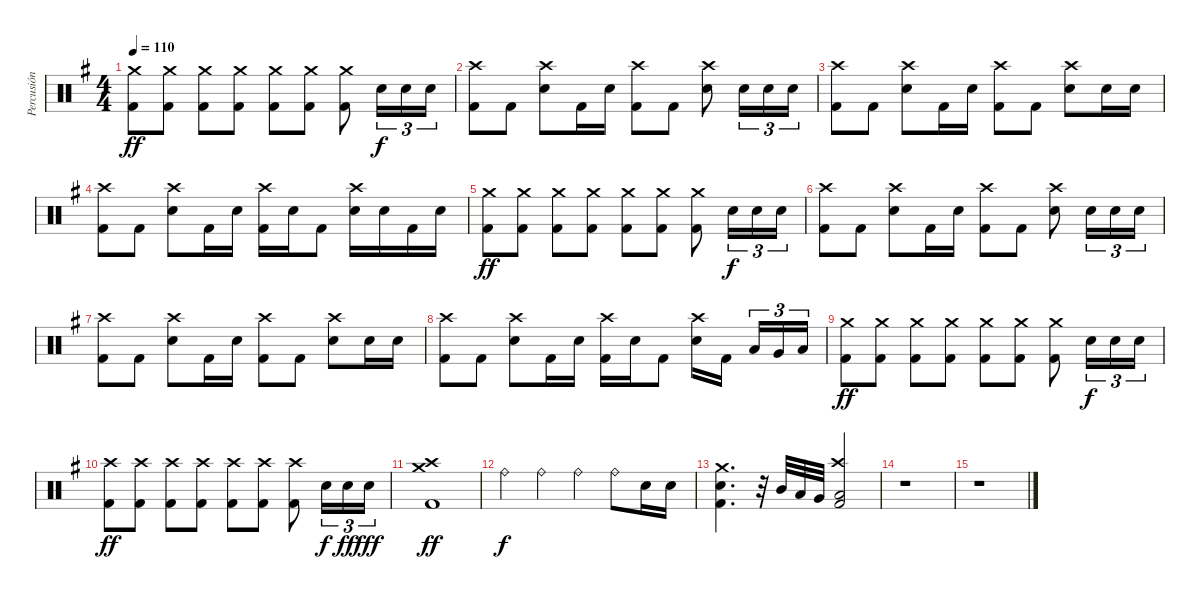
\track ("Percusión" "Percusión") {instrument percussion}
\staff {score}
\articulation defaults
\ts (4 4)
\tempo 110
\clef neutral
\ks g
("Crash medium (hit)" "Kick (hit) 2").8{dy ff} ("Crash medium (hit)" "Kick (hit) 2").8 ("Crash medium (hit)" "Kick (hit) 2").8 ("Crash medium (hit)" "Kick (hit) 2").8 ("Crash medium (hit)" "Kick (hit) 2").8 ("Crash medium (hit)" "Kick (hit) 2").8 ("Crash medium (hit)" "Kick (hit) 2").8 "Snare (hit) 2".16{tu (3 2) dy f} "Snare (hit) 2".16{tu (3 2)} "Snare (hit) 2".16{tu (3 2)} |
("Crash high (hit)" "Kick (hit) 2").8 "Kick (hit) 2".8 ("Crash high (hit)" "Snare (hit) 2").8 "Kick (hit) 2".16 "Snare (hit) 2".16 ("Crash high (hit)" "Kick (hit) 2").8 "Kick (hit) 2".8 ("Crash high (hit)" "Snare (hit) 2").8 "Snare (hit) 2".16{tu (3 2)} "Snare (hit) 2".16{tu (3 2)} "Snare (hit) 2".16{tu (3 2)} |
("Crash high (hit)" "Kick (hit) 2").8 "Kick (hit) 2".8 ("Crash high (hit)" "Snare (hit) 2").8 "Kick (hit) 2".16 "Snare (hit) 2".16 ("Crash high (hit)" "Kick (hit) 2").8 "Kick (hit) 2".8 ("Crash high (hit)" "Snare (hit) 2").8 "Snare (hit) 2".16 "Snare (hit) 2".16 |
("Crash high (hit)" "Kick (hit) 2").8 "Kick (hit) 2".8 ("Crash high (hit)" "Snare (hit) 2").8 "Kick (hit) 2".16 "Snare (hit) 2".16 ("Crash high (hit)" "Kick (hit) 2").16 "Snare (hit) 2".16 "Kick (hit) 2".8 ("Crash high (hit)" "Snare (hit) 2").16 "Snare (hit) 2".16 "Kick (hit) 2".16 "Snare (hit) 2".16 |
("Crash medium (hit)" "Kick (hit) 2").8{dy ff} ("Crash medium (hit)" "Kick (hit) 2").8 ("Crash medium (hit)" "Kick (hit) 2").8 ("Crash medium (hit)" "Kick (hit) 2").8 ("Crash medium (hit)" "Kick (hit) 2").8 ("Crash medium (hit)" "Kick (hit) 2").8 ("Crash medium (hit)" "Kick (hit) 2").8 "Snare (hit) 2".16{tu (3 2) dy f} "Snare (hit) 2".16{tu (3 2)} "Snare (hit) 2".16{tu (3 2)} |
("Crash high (hit)" "Kick (hit) 2").8 "Kick (hit) 2".8 ("Crash high (hit)" "Snare (hit) 2").8 "Kick (hit) 2".16 "Snare (hit) 2".16 ("Crash high (hit)" "Kick (hit) 2").8 "Kick (hit) 2".8 ("Crash high (hit)" "Snare (hit) 2").8 "Snare (hit) 2".16{tu (3 2)} "Snare (hit) 2".16{tu (3 2)} "Snare (hit) 2".16{tu (3 2)} |
("Crash high (hit)" "Kick (hit) 2").8 "Kick (hit) 2".8 ("Crash high (hit)" "Snare (hit) 2").8 "Kick (hit) 2".16 "Snare (hit) 2".16 ("Crash high (hit)" "Kick (hit) 2").8 "Kick (hit) 2".8 ("Crash high (hit)" "Snare (hit) 2").8 "Snare (hit) 2".16 "Snare (hit) 2".16 |
("Crash high (hit)" "Kick (hit) 2").8 "Kick (hit) 2".8 ("Crash high (hit)" "Snare (hit) 2").8 "Kick (hit) 2".16 "Snare (hit) 2".16 ("Crash high (hit)" "Kick (hit) 2").16 "Snare (hit) 2".16 "Kick (hit) 2".8 ("Crash high (hit)" "Snare (hit) 2").16 "Kick (hit) 2".16{beam splitsecondary} "Low Tom (hit)".16{tu (3 2)} "Very Low Tom (hit)".16{tu (3 2)} "Low Floor Tom (hit)".16{tu (3 2)} |
("Crash medium (hit)" "Kick (hit) 2").8{dy ff} ("Crash medium (hit)" "Kick (hit) 2").8 ("Crash medium (hit)" "Kick (hit) 2").8 ("Crash medium (hit)" "Kick (hit) 2").8 ("Crash medium (hit)" "Kick (hit) 2").8 ("Crash medium (hit)" "Kick (hit) 2").8 ("Crash medium (hit)" "Kick (hit) 2").8 "Snare (hit) 2".16{tu (3 2) dy f} "Snare (hit) 2".16{tu (3 2)} "Snare (hit) 2".16{tu (3 2)} |
("Crash high (hit)" "Kick (hit) 2").8{dy ff} ("Crash high (hit)" "Kick (hit) 2").8 ("Crash high (hit)" "Kick (hit) 2").8 ("Crash high (hit)" "Kick (hit) 2").8 ("Crash high (hit)" "Kick (hit) 2").8 ("Crash high (hit)" "Kick (hit) 2").8 ("Crash high (hit)" "Kick (hit) 2").8 "Snare (hit) 2".16{tu (3 2) dy f} "Snare (hit) 2".16{tu (3 2) dy ff} "Snare (hit) 2".16{tu (3 2) dy fff} |
("Crash medium (hit)" "Crash high (hit)" "Kick (hit) 2").1{dy ff} |
"Ride (bell)".4{dy f} "Ride (bell)".4 "Ride (bell)".4 "Ride (bell)".8 "Snare (hit) 2".16 "Snare (hit) 2".16 |
("Crash medium (hit)" "Snare (hit) 2" "Kick (hit) 2").4{d} r.32 "Mid Tom (hit)".32 "Low Tom (hit)".32 "Very Low Tom (hit)".32 ("Crash high (hit)" "Low Floor Tom (hit)" "Kick (hit) 2").2 |
r.1 |
r.1
